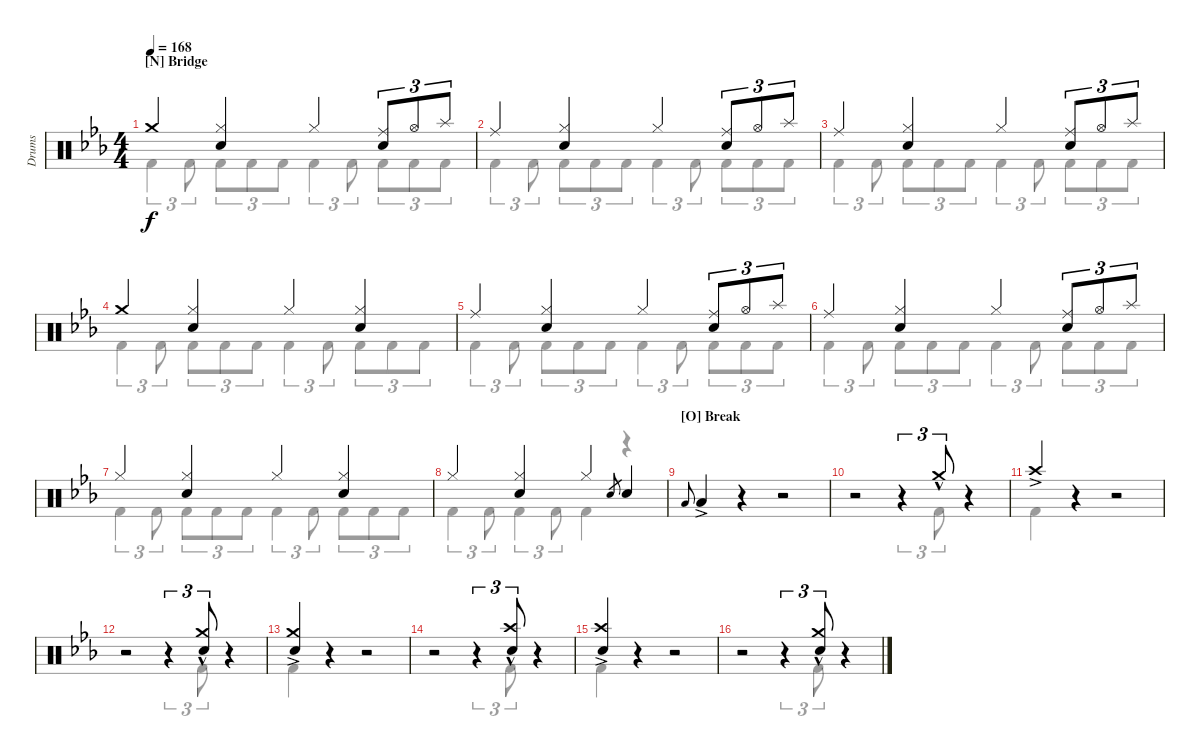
\defaultSystemsLayout 4
\bracketExtendMode groupsimilarinstruments
\otherSystemsTrackNameOrientation horizontal
\track ("Drums" "Drums") {instrument percussion}
\staff {score}
\articulation defaults
\voice
\ts (4 4)
\section ("N" "Bridge")
\tempo 168
\clef neutral
\ks eb "Crash medium (hit)"{acc forcenatural}.4{dy f beam Up}
("Hi-Hat (closed)"{acc forcenatural} "Snare (hit) 2"{acc forcenatural}).4{beam Up} "Hi-Hat (closed)"{acc forcenatural}.4{beam Up} ("Ride (middle)"{acc forcenatural} "Snare (hit) 2"{acc forcenatural}).8{tu (3 2) beam Up} "Hi-Hat (open)"{acc forcenatural}.8{tu (3 2) beam Up} "Splash (hit)"{acc forcenatural}.8{tu (3 2) beam Up} |
"Ride (middle)"{acc forcenatural}.4{beam Up} ("Hi-Hat (closed)"{acc forcenatural} "Snare (hit) 2"{acc forcenatural}).4{beam Up} "Hi-Hat (closed)"{acc forcenatural}.4{beam Up} ("Ride (middle)"{acc forcenatural} "Snare (hit) 2"{acc forcenatural}).8{tu (3 2) beam Up} "Hi-Hat (open)"{acc forcenatural}.8{tu (3 2) beam Up} "Splash (hit)"{acc forcenatural}.8{tu (3 2) beam Up} |
"Ride (middle)"{acc forcenatural}.4{beam Up} ("Hi-Hat (closed)"{acc forcenatural} "Snare (hit) 2"{acc forcenatural}).4{beam Up} "Hi-Hat (closed)"{acc forcenatural}.4{beam Up} ("Ride (middle)"{acc forcenatural} "Snare (hit) 2"{acc forcenatural}).8{tu (3 2) beam Up} "Hi-Hat (open)"{acc forcenatural}.8{tu (3 2) beam Up} "Splash (hit)"{acc forcenatural}.8{tu (3 2) beam Up} |
"Crash medium (hit)"{acc forcenatural}.4{beam Up} ("Hi-Hat (closed)"{acc forcenatural} "Snare (hit) 2"{acc forcenatural}).4{beam Up} "Hi-Hat (closed)"{acc forcenatural}.4{beam Up} ("Snare (hit) 2"{acc forcenatural} "Hi-Hat (closed)"{acc forcenatural}).4{beam Up} |
"Ride (middle)"{acc forcenatural}.4{beam Up} ("Hi-Hat (closed)"{acc forcenatural} "Snare (hit) 2"{acc forcenatural}).4{beam Up} "Hi-Hat (closed)"{acc forcenatural}.4{beam Up} ("Ride (middle)"{acc forcenatural} "Snare (hit) 2"{acc forcenatural}).8{tu (3 2) beam Up} "Hi-Hat (open)"{acc forcenatural}.8{tu (3 2) beam Up} "Splash (hit)"{acc forcenatural}.8{tu (3 2) beam Up} |
"Ride (middle)"{acc forcenatural}.4{beam Up} ("Hi-Hat (closed)"{acc forcenatural} "Snare (hit) 2"{acc forcenatural}).4{beam Up} "Hi-Hat (closed)"{acc forcenatural}.4{beam Up} ("Ride (middle)"{acc forcenatural} "Snare (hit) 2"{acc forcenatural}).8{tu (3 2) beam Up} "Hi-Hat (open)"{acc forcenatural}.8{tu (3 2) beam Up} "Splash (hit)"{acc forcenatural}.8{tu (3 2) beam Up} |
"Hi-Hat (closed)"{acc forcenatural}.4{beam Up} ("Hi-Hat (closed)"{acc forcenatural} "Snare (hit) 2"{acc forcenatural}).4{beam Up} "Hi-Hat (closed)"{acc forcenatural}.4{beam Up} ("Hi-Hat (closed)"{acc forcenatural} "Snare (hit) 2"{acc forcenatural}).4{beam Up} |
"Hi-Hat (closed)"{acc forcenatural}.4{beam Up} ("Hi-Hat (closed)"{acc forcenatural} "Snare (hit) 2"{acc forcenatural}).4{beam Up} "Hi-Hat (closed)"{acc forcenatural}.4{beam Up} "Snare (hit) 2"{acc forcenatural}.8{gr beam Up} "Snare (hit) 2"{acc forcenatural}.4{beam Up} |
\section ("O" "Break")
"Low Tom (hit)"{acc forcenatural}.8{gr onbeat beam Up} "Low Tom (hit)"{ac acc forcenatural}.4{beam Up} r.4{beam Up} r.2{beam Up} |
r.2{beam Up} r.4{tu (3 2) beam Up} "Crash medium (hit)"{hac acc forcenatural}.8{tu (3 2) beam Up} r.4{beam Up} |
"Crash high (hit)"{ac acc forcenatural}.4{beam Up} r.4{beam Up} r.2{beam Up} |
r.2{beam Up} r.4{tu (3 2) beam Up} ("Crash medium (hit)"{hac acc forcenatural} "Snare (hit) 2"{acc forcenatural}).8{tu (3 2) beam Up} r.4{beam Up} |
("Crash medium (hit)"{ac acc forcenatural} "Snare (hit) 2"{acc forcenatural}).4{beam Up} r.4{beam Up} r.2{beam Up} |
r.2{beam Up} r.4{tu (3 2) beam Up} ("Snare (hit) 2"{acc forcenatural} "Crash high (hit)"{hac acc forcenatural}).8{tu (3 2) beam Up} r.4{beam Up} |
("Crash high (hit)"{ac acc forcenatural} "Snare (hit) 2"{acc forcenatural}).4{beam Up} r.4{beam Up} r.2{beam Up} |
r.2{beam Up} r.4{tu (3 2) beam Up} ("Crash medium (hit)"{hac acc forcenatural} "Snare (hit) 2"{acc forcenatural}).8{tu (3 2) beam Up} r.4{beam Up}
\voice
\clef neutral
\ottava regular
\simile none
\ks eb "Kick (hit) 2"{acc forcenatural}.4{tu (3 2) dy f beam Down} "Kick (hit) 2"{acc forcenatural}.8{tu (3 2) beam Down} "Kick (hit) 2"{acc forcenatural}.8{tu (3 2) beam Down} "Kick (hit) 2"{acc forcenatural}.8{tu (3 2) beam Down} "Kick (hit) 2"{acc forcenatural}.8{tu (3 2) beam Down} "Kick (hit) 2"{acc forcenatural}.4{tu (3 2) beam Down} "Kick (hit) 2"{acc forcenatural}.8{tu (3 2) beam Down} "Kick (hit) 2"{acc forcenatural}.8{tu (3 2) beam Down} "Kick (hit) 2"{acc forcenatural}.8{tu (3 2) beam Down} "Kick (hit) 2"{acc forcenatural}.8{tu (3 2) beam Down}
|
"Kick (hit) 2"{acc forcenatural}.4{tu (3 2) beam Down} "Kick (hit) 2"{acc forcenatural}.8{tu (3 2) beam Down} "Kick (hit) 2"{acc forcenatural}.8{tu (3 2) beam Down} "Kick (hit) 2"{acc forcenatural}.8{tu (3 2) beam Down} "Kick (hit) 2"{acc forcenatural}.8{tu (3 2) beam Down} "Kick (hit) 2"{acc forcenatural}.4{tu (3 2) beam Down} "Kick (hit) 2"{acc forcenatural}.8{tu (3 2) beam Down} "Kick (hit) 2"{acc forcenatural}.8{tu (3 2) beam Down} "Kick (hit) 2"{acc forcenatural}.8{tu (3 2) beam Down} "Kick (hit) 2"{acc forcenatural}.8{tu (3 2) beam Down} |
"Kick (hit) 2"{acc forcenatural}.4{tu (3 2) beam Down} "Kick (hit) 2"{acc forcenatural}.8{tu (3 2) beam Down} "Kick (hit) 2"{acc forcenatural}.8{tu (3 2) beam Down} "Kick (hit) 2"{acc forcenatural}.8{tu (3 2) beam Down} "Kick (hit) 2"{acc forcenatural}.8{tu (3 2) beam Down} "Kick (hit) 2"{acc forcenatural}.4{tu (3 2) beam Down} "Kick (hit) 2"{acc forcenatural}.8{tu (3 2) beam Down} "Kick (hit) 2"{acc forcenatural}.8{tu (3 2) beam Down} "Kick (hit) 2"{acc forcenatural}.8{tu (3 2) beam Down} "Kick (hit) 2"{acc forcenatural}.8{tu (3 2) beam Down} |
"Kick (hit) 2"{acc forcenatural}.4{tu (3 2) beam Down} "Kick (hit) 2"{acc forcenatural}.8{tu (3 2) beam Down} "Kick (hit) 2"{acc forcenatural}.8{tu (3 2) beam Down} "Kick (hit) 2"{acc forcenatural}.8{tu (3 2) beam Down} "Kick (hit) 2"{acc forcenatural}.8{tu (3 2) beam Down} "Kick (hit) 2"{acc forcenatural}.4{tu (3 2) beam Down} "Kick (hit) 2"{acc forcenatural}.8{tu (3 2) beam Down} "Kick (hit) 2"{acc forcenatural}.8{tu (3 2) beam Down} "Kick (hit) 2"{acc forcenatural}.8{tu (3 2) beam Down} "Kick (hit) 2"{acc forcenatural}.8{tu (3 2) beam Down} |
"Kick (hit) 2"{acc forcenatural}.4{tu (3 2) beam Down} "Kick (hit) 2"{acc forcenatural}.8{tu (3 2) beam Down} "Kick (hit) 2"{acc forcenatural}.8{tu (3 2) beam Down} "Kick (hit) 2"{acc forcenatural}.8{tu (3 2) beam Down} "Kick (hit) 2"{acc forcenatural}.8{tu (3 2) beam Down} "Kick (hit) 2"{acc forcenatural}.4{tu (3 2) beam Down} "Kick (hit) 2"{acc forcenatural}.8{tu (3 2) beam Down} "Kick (hit) 2"{acc forcenatural}.8{tu (3 2) beam Down} "Kick (hit) 2"{acc forcenatural}.8{tu (3 2) beam Down} "Kick (hit) 2"{acc forcenatural}.8{tu (3 2) beam Down} |
"Kick (hit) 2"{acc forcenatural}.4{tu (3 2) beam Down} "Kick (hit) 2"{acc forcenatural}.8{tu (3 2) beam Down} "Kick (hit) 2"{acc forcenatural}.8{tu (3 2) beam Down} "Kick (hit) 2"{acc forcenatural}.8{tu (3 2) beam Down} "Kick (hit) 2"{acc forcenatural}.8{tu (3 2) beam Down} "Kick (hit) 2"{acc forcenatural}.4{tu (3 2) beam Down} "Kick (hit) 2"{acc forcenatural}.8{tu (3 2) beam Down} "Kick (hit) 2"{acc forcenatural}.8{tu (3 2) beam Down} "Kick (hit) 2"{acc forcenatural}.8{tu (3 2) beam Down} "Kick (hit) 2"{acc forcenatural}.8{tu (3 2) beam Down} |
"Kick (hit) 2"{acc forcenatural}.4{tu (3 2) beam Down} "Kick (hit) 2"{acc forcenatural}.8{tu (3 2) beam Down} "Kick (hit) 2"{acc forcenatural}.8{tu (3 2) beam Down} "Kick (hit) 2"{acc forcenatural}.8{tu (3 2) beam Down} "Kick (hit) 2"{acc forcenatural}.8{tu (3 2) beam Down} "Kick (hit) 2"{acc forcenatural}.4{tu (3 2) beam Down} "Kick (hit) 2"{acc forcenatural}.8{tu (3 2) beam Down} "Kick (hit) 2"{acc forcenatural}.8{tu (3 2) beam Down} "Kick (hit) 2"{acc forcenatural}.8{tu (3 2) beam Down} "Kick (hit) 2"{acc forcenatural}.8{tu (3 2) beam Down} |
"Kick (hit) 2"{acc forcenatural}.4{tu (3 2) beam Down} "Kick (hit) 2"{acc forcenatural}.8{tu (3 2) beam Down} "Kick (hit) 2"{acc forcenatural}.4{tu (3 2) beam Down} "Kick (hit) 2"{acc forcenatural}.8{tu (3 2) beam Down} "Kick (hit) 2"{acc forcenatural}.4{beam Down} r.4{beam Down} |
|
r.2{beam Down} r.4{tu (3 2) beam Down} "Kick (hit) 2"{acc forcenatural}.8{tu (3 2) beam Down} r.4{beam Down} |
"Kick (hit) 2"{acc forcenatural}.4{beam Down} r.4{beam Down} r.2{beam Down} |
r.2{beam Down} r.4{tu (3 2) beam Down} "Kick (hit) 2"{acc forcenatural}.8{tu (3 2) beam Down} r.4{beam Down} |
"Kick (hit) 2"{acc forcenatural}.4{beam Down} r.4{beam Down} r.2{beam Down} |
r.2{beam Down} r.4{tu (3 2) beam Down} "Kick (hit) 2"{acc forcenatural}.8{tu (3 2) beam Down} r.4{beam Down} |
"Kick (hit) 2"{acc forcenatural}.4{beam Down} r.4{beam Down} r.2{beam Down} |
r.2{beam Down} r.4{tu (3 2) beam Down} "Kick (hit) 2"{acc forcenatural}.8{tu (3 2) beam Down} r.4{beam Down}
